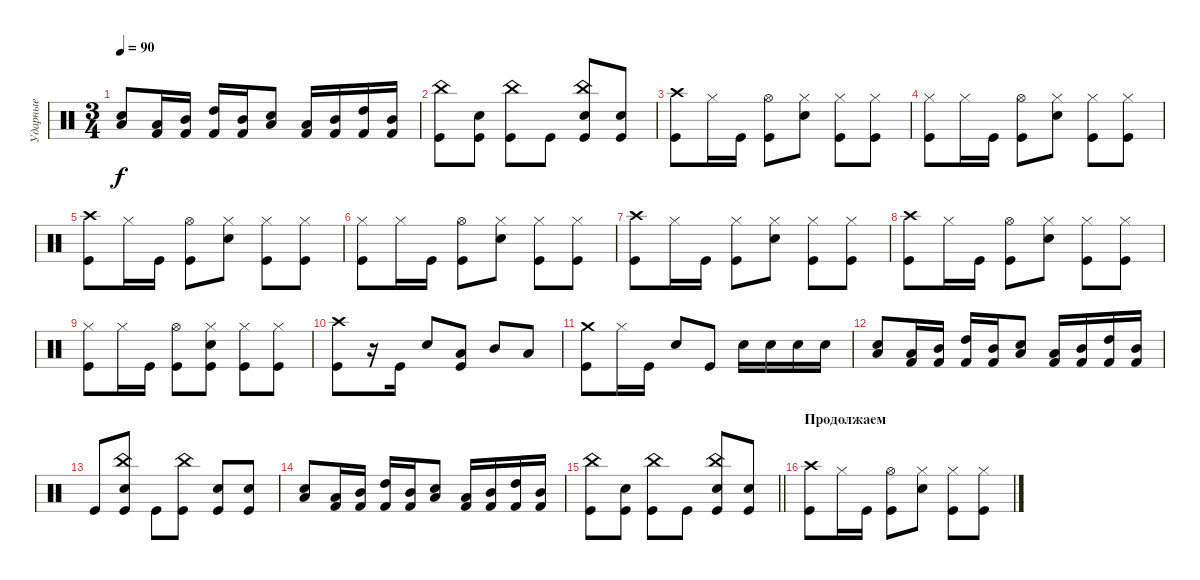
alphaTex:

\track ("Ударные" "Ударные") {instrument percussion}
\staff {score}
\articulation defaults
\ts (3 4)
\tempo 90
\clef neutral
\ks c
("Low Floor Tom (hit)" "Electric Snare (hit)").8{dy f} ("Low Tom (hit)" "Kick (hit) 2").16 ("Mid Tom (hit)" "Kick (hit) 2").16 ("High Tom (hit)" "Kick (hit) 2").16 ("Mid Tom (hit)" "Kick (hit) 2").16 ("Low Floor Tom (hit)" "Electric Snare (hit)").8 ("Low Tom (hit)" "Kick (hit) 2").16 ("Mid Tom (hit)" "Kick (hit) 2").16 ("High Tom (hit)" "Kick (hit) 2").16 ("Mid Tom (hit)" "Kick (hit) 2").16 |
("China (hit)" "Kick (hit)").8 ("Electric Snare (hit)" "Kick (hit)").8 ("China (hit)" "Kick (hit)").8 "Kick (hit)".8 ("China (hit)" "Electric Snare (hit)" "Kick (hit)").8 ("Electric Snare (hit)" "Kick (hit)").8 |
("Crash high (hit)" "Kick (hit)").8 "Hi-Hat (closed)".16 "Kick (hit)".16 ("Hi-Hat (open)" "Kick (hit)").8 ("Hi-Hat (closed)" "Electric Snare (hit)").8 ("Hi-Hat (closed)" "Kick (hit)").8 ("Hi-Hat (closed)" "Kick (hit)").8 |
("Hi-Hat (closed)" "Kick (hit)").8 "Hi-Hat (closed)".16 "Kick (hit)".16 ("Hi-Hat (open)" "Kick (hit)").8 ("Hi-Hat (closed)" "Electric Snare (hit)").8 ("Hi-Hat (closed)" "Kick (hit)").8 ("Hi-Hat (closed)" "Kick (hit)").8 |
("Crash high (hit)" "Kick (hit)").8 "Hi-Hat (closed)".16 "Kick (hit)".16 ("Hi-Hat (open)" "Kick (hit)").8 ("Hi-Hat (closed)" "Electric Snare (hit)").8 ("Hi-Hat (closed)" "Kick (hit)").8 ("Hi-Hat (closed)" "Kick (hit)").8 |
("Hi-Hat (closed)" "Kick (hit)").8 "Hi-Hat (closed)".16 "Kick (hit)".16 ("Hi-Hat (open)" "Kick (hit)").8 ("Hi-Hat (closed)" "Electric Snare (hit)").8 ("Hi-Hat (closed)" "Kick (hit)").8 ("Hi-Hat (closed)" "Kick (hit)").8 |
("Crash high (hit)" "Kick (hit)").8 "Hi-Hat (closed)".16 "Kick (hit)".16 ("Hi-Hat (closed)" "Kick (hit)").8 ("Hi-Hat (closed)" "Electric Snare (hit)").8 ("Hi-Hat (closed)" "Kick (hit)").8 ("Hi-Hat (closed)" "Kick (hit)").8 |
("Crash high (hit)" "Kick (hit)").8 "Hi-Hat (closed)".16 "Kick (hit)".16 ("Hi-Hat (open)" "Kick (hit)").8 ("Hi-Hat (closed)" "Electric Snare (hit)").8 ("Hi-Hat (closed)" "Kick (hit)").8 ("Hi-Hat (closed)" "Kick (hit)").8 |
("Hi-Hat (closed)" "Kick (hit)").8 "Hi-Hat (closed)".16 "Kick (hit)".16 ("Hi-Hat (open)" "Kick (hit)").8 ("Hi-Hat (closed)" "Electric Snare (hit)" "Kick (hit)").8 ("Hi-Hat (closed)" "Kick (hit)").8 ("Hi-Hat (closed)" "Kick (hit)").8 |
("Crash high (hit)" "Kick (hit)").8 r.16 "Kick (hit)".16 "Electric Snare (hit)".8 ("Low Tom (hit)" "Kick (hit)").8 "Mid Tom (hit)".8 "Low Tom (hit)".8 |
("Crash medium (hit)" "Kick (hit)").8 "Hi-Hat (closed)".16 "Kick (hit)".16 "Electric Snare (hit)".8 "Kick (hit)".8 "Electric Snare (hit)".16 "Electric Snare (hit)".16 "Electric Snare (hit)".16 "Electric Snare (hit)".16 |
("Low Floor Tom (hit)" "Electric Snare (hit)").8 ("Low Tom (hit)" "Kick (hit) 2").16 ("Mid Tom (hit)" "Kick (hit) 2").16 ("High Tom (hit)" "Kick (hit) 2").16 ("Mid Tom (hit)" "Kick (hit) 2").16 ("Low Floor Tom (hit)" "Electric Snare (hit)").8 ("Low Tom (hit)" "Kick (hit) 2").16 ("Mid Tom (hit)" "Kick (hit) 2").16 ("High Tom (hit)" "Kick (hit) 2").16 ("Mid Tom (hit)" "Kick (hit) 2").16 |
"Kick (hit)".8 ("China (hit)" "Electric Snare (hit)" "Kick (hit)").8 "Kick (hit)".8 ("China (hit)" "Kick (hit)").8 ("Electric Snare (hit)" "Kick (hit)").8 ("Electric Snare (hit)" "Kick (hit)").8 |
("Low Floor Tom (hit)" "Electric Snare (hit)").8 ("Low Tom (hit)" "Kick (hit) 2").16 ("Mid Tom (hit)" "Kick (hit) 2").16 ("High Tom (hit)" "Kick (hit) 2").16 ("Mid Tom (hit)" "Kick (hit) 2").16 ("Low Floor Tom (hit)" "Electric Snare (hit)").8 ("Low Tom (hit)" "Kick (hit) 2").16 ("Mid Tom (hit)" "Kick (hit) 2").16 ("High Tom (hit)" "Kick (hit) 2").16 ("Mid Tom (hit)" "Kick (hit) 2").16 |
\barLineRight lightlight
("China (hit)" "Kick (hit)").8 ("Electric Snare (hit)" "Kick (hit)").8 ("China (hit)" "Kick (hit)").8 "Kick (hit)".8 ("China (hit)" "Electric Snare (hit)" "Kick (hit)").8 ("Electric Snare (hit)" "Kick (hit)").8 |
\section ("" "Продолжаем")
("Crash high (hit)" "Kick (hit)").8 "Hi-Hat (closed)".16 "Kick (hit)".16 ("Hi-Hat (open)" "Kick (hit)").8 ("Hi-Hat (closed)" "Electric Snare (hit)").8 ("Hi-Hat (closed)" "Kick (hit)").8 ("Hi-Hat (closed)" "Kick (hit)").8
